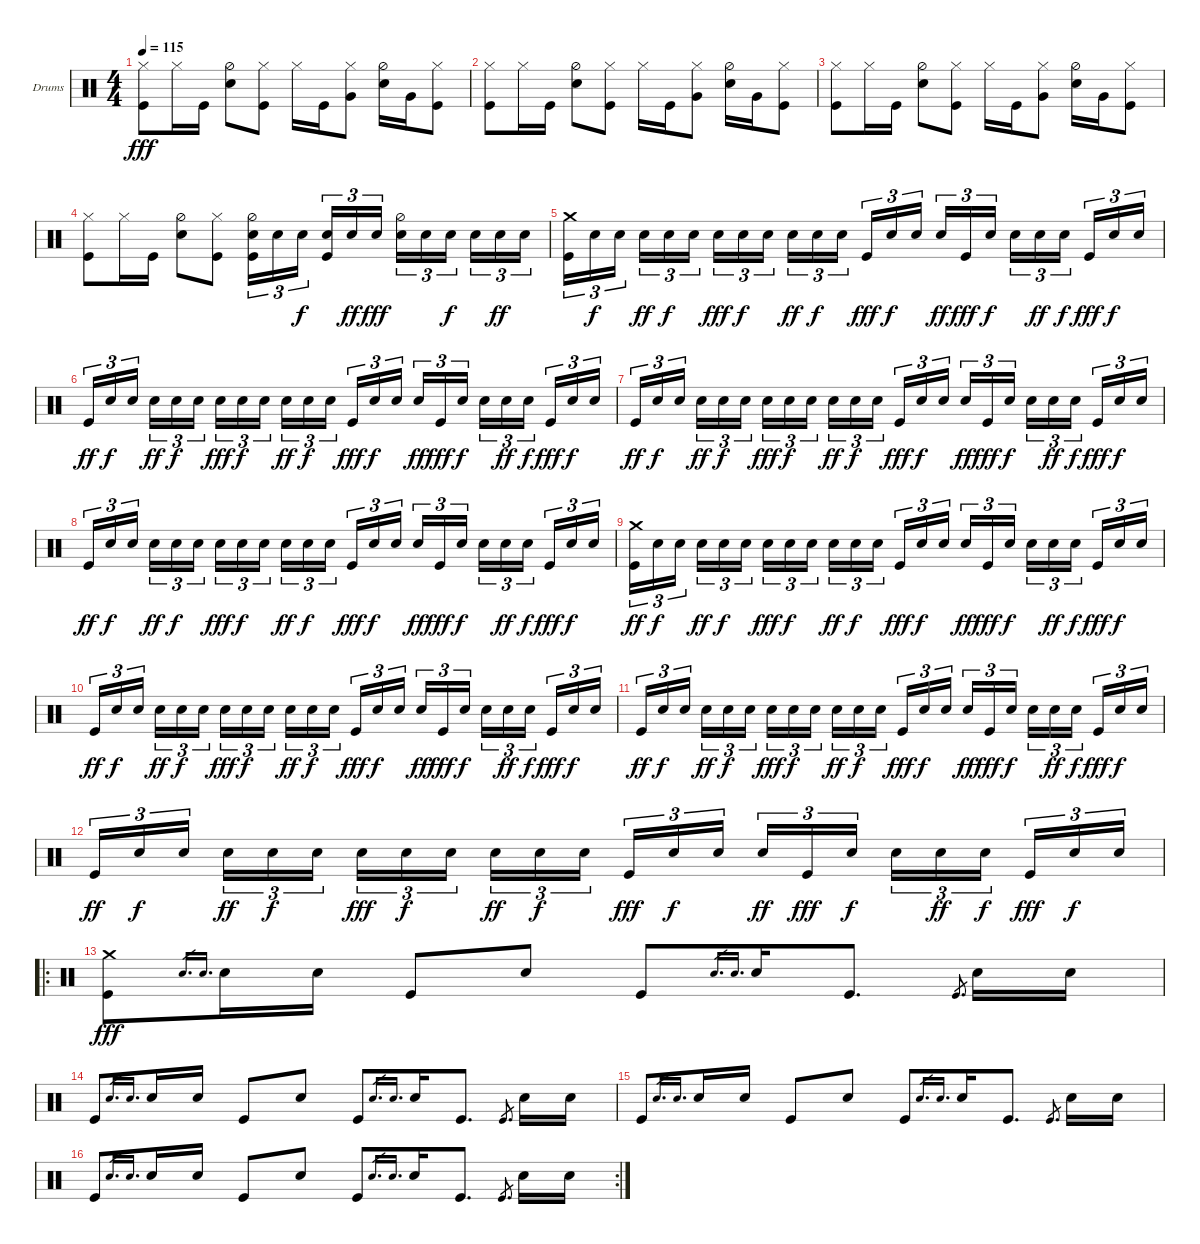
\defaultSystemsLayout 4
\bracketExtendMode groupsimilarinstruments
\firstSystemTrackNameOrientation horizontal
\otherSystemsTrackNameOrientation horizontal
\track ("Drumkit" "Drums") {instrument percussion}
\staff {score}
\articulation defaults
\ts (4 4)
\tempo 115
\clef neutral
\ks c
("Kick (hit)" "Hi-Hat (closed)").8{dy fff} "Hi-Hat (closed)".16 "Kick (hit)".16 ("Snare (hit) 2" "Hi-Hat (half)").8 ("Kick (hit)" "Hi-Hat (closed)").8 "Hi-Hat (closed)".16 "Kick (hit)".16 ("Hi-Hat (closed)" "Very Low Tom (hit)").8 ("Snare (hit) 2" "Hi-Hat (half)").16 "Very Low Tom (hit)".16 ("Kick (hit)" "Hi-Hat (closed)").8 |
("Kick (hit)" "Hi-Hat (closed)").8 "Hi-Hat (closed)".16 "Kick (hit)".16 ("Snare (hit) 2" "Hi-Hat (half)").8 ("Kick (hit)" "Hi-Hat (closed)").8 "Hi-Hat (closed)".16 "Kick (hit)".16 ("Hi-Hat (closed)" "Very Low Tom (hit)").8 ("Snare (hit) 2" "Hi-Hat (half)").16 "Very Low Tom (hit)".16 ("Kick (hit)" "Hi-Hat (closed)").8 |
("Kick (hit)" "Hi-Hat (closed)").8 "Hi-Hat (closed)".16 "Kick (hit)".16 ("Snare (hit) 2" "Hi-Hat (half)").8 ("Kick (hit)" "Hi-Hat (closed)").8 "Hi-Hat (closed)".16 "Kick (hit)".16 ("Hi-Hat (closed)" "Very Low Tom (hit)").8 ("Snare (hit) 2" "Hi-Hat (half)").16 "Very Low Tom (hit)".16 ("Kick (hit)" "Hi-Hat (closed)").8 |
("Kick (hit)" "Hi-Hat (closed)").8 "Hi-Hat (closed)".16 "Kick (hit)".16 ("Snare (hit) 2" "Hi-Hat (half)").8 ("Kick (hit)" "Hi-Hat (closed)").8 ("Snare (hit) 2" "Kick (hit)" "Hi-Hat (half)").16{tu (3 2)} "Snare (hit) 2".16{tu (3 2)} "Snare (hit) 2".16{tu (3 2) dy f} ("Snare (hit) 2" "Kick (hit)").16{tu (3 2)} "Snare (hit) 2".16{tu (3 2) dy ff} "Snare (hit) 2".16{tu (3 2) dy fff} ("Snare (hit) 2" "Hi-Hat (half)").16{tu (3 2)} "Snare (hit) 2".16{tu (3 2)} "Snare (hit) 2".16{tu (3 2) dy f} "Snare (hit) 2".16{tu (3 2)} "Snare (hit) 2".16{tu (3 2) dy ff} "Snare (hit) 2".16{tu (3 2)} |
("Kick (hit)" "Crash medium (hit)").16{tu (3 2)} "Snare (hit) 2".16{tu (3 2) dy f} "Snare (hit) 2".16{tu (3 2)} "Snare (hit) 2".16{tu (3 2) dy ff} "Snare (hit) 2".16{tu (3 2) dy f} "Snare (hit) 2".16{tu (3 2)} "Snare (hit) 2".16{tu (3 2) dy fff} "Snare (hit) 2".16{tu (3 2) dy f} "Snare (hit) 2".16{tu (3 2)} "Snare (hit) 2".16{tu (3 2) dy ff} "Snare (hit) 2".16{tu (3 2) dy f} "Snare (hit) 2".16{tu (3 2)} "Kick (hit)".16{tu (3 2) dy fff} "Snare (hit) 2".16{tu (3 2) dy f} "Snare (hit) 2".16{tu (3 2)} "Snare (hit) 2".16{tu (3 2) dy ff} "Kick (hit)".16{tu (3 2) dy fff} "Snare (hit) 2".16{tu (3 2) dy f} "Snare (hit) 2".16{tu (3 2)} "Snare (hit) 2".16{tu (3 2) dy ff} "Snare (hit) 2".16{tu (3 2) dy f} "Kick (hit)".16{tu (3 2) dy fff} "Snare (hit) 2".16{tu (3 2) dy f} "Snare (hit) 2".16{tu (3 2)} |
"Kick (hit)".16{tu (3 2) dy ff} "Snare (hit) 2".16{tu (3 2) dy f} "Snare (hit) 2".16{tu (3 2)} "Snare (hit) 2".16{tu (3 2) dy ff} "Snare (hit) 2".16{tu (3 2) dy f} "Snare (hit) 2".16{tu (3 2)} "Snare (hit) 2".16{tu (3 2) dy fff} "Snare (hit) 2".16{tu (3 2) dy f} "Snare (hit) 2".16{tu (3 2)} "Snare (hit) 2".16{tu (3 2) dy ff} "Snare (hit) 2".16{tu (3 2) dy f} "Snare (hit) 2".16{tu (3 2)} "Kick (hit)".16{tu (3 2) dy fff} "Snare (hit) 2".16{tu (3 2) dy f} "Snare (hit) 2".16{tu (3 2)} "Snare (hit) 2".16{tu (3 2) dy ff} "Kick (hit)".16{tu (3 2) dy fff} "Snare (hit) 2".16{tu (3 2) dy f} "Snare (hit) 2".16{tu (3 2)} "Snare (hit) 2".16{tu (3 2) dy ff} "Snare (hit) 2".16{tu (3 2) dy f} "Kick (hit)".16{tu (3 2) dy fff} "Snare (hit) 2".16{tu (3 2) dy f} "Snare (hit) 2".16{tu (3 2)} |
"Kick (hit)".16{tu (3 2) dy ff} "Snare (hit) 2".16{tu (3 2) dy f} "Snare (hit) 2".16{tu (3 2)} "Snare (hit) 2".16{tu (3 2) dy ff} "Snare (hit) 2".16{tu (3 2) dy f} "Snare (hit) 2".16{tu (3 2)} "Snare (hit) 2".16{tu (3 2) dy fff} "Snare (hit) 2".16{tu (3 2) dy f} "Snare (hit) 2".16{tu (3 2)} "Snare (hit) 2".16{tu (3 2) dy ff} "Snare (hit) 2".16{tu (3 2) dy f} "Snare (hit) 2".16{tu (3 2)} "Kick (hit)".16{tu (3 2) dy fff} "Snare (hit) 2".16{tu (3 2) dy f} "Snare (hit) 2".16{tu (3 2)} "Snare (hit) 2".16{tu (3 2) dy ff} "Kick (hit)".16{tu (3 2) dy fff} "Snare (hit) 2".16{tu (3 2) dy f} "Snare (hit) 2".16{tu (3 2)} "Snare (hit) 2".16{tu (3 2) dy ff} "Snare (hit) 2".16{tu (3 2) dy f} "Kick (hit)".16{tu (3 2) dy fff} "Snare (hit) 2".16{tu (3 2) dy f} "Snare (hit) 2".16{tu (3 2)} |
"Kick (hit)".16{tu (3 2) dy ff} "Snare (hit) 2".16{tu (3 2) dy f} "Snare (hit) 2".16{tu (3 2)} "Snare (hit) 2".16{tu (3 2) dy ff} "Snare (hit) 2".16{tu (3 2) dy f} "Snare (hit) 2".16{tu (3 2)} "Snare (hit) 2".16{tu (3 2) dy fff} "Snare (hit) 2".16{tu (3 2) dy f} "Snare (hit) 2".16{tu (3 2)} "Snare (hit) 2".16{tu (3 2) dy ff} "Snare (hit) 2".16{tu (3 2) dy f} "Snare (hit) 2".16{tu (3 2)} "Kick (hit)".16{tu (3 2) dy fff} "Snare (hit) 2".16{tu (3 2) dy f} "Snare (hit) 2".16{tu (3 2)} "Snare (hit) 2".16{tu (3 2) dy ff} "Kick (hit)".16{tu (3 2) dy fff} "Snare (hit) 2".16{tu (3 2) dy f} "Snare (hit) 2".16{tu (3 2)} "Snare (hit) 2".16{tu (3 2) dy ff} "Snare (hit) 2".16{tu (3 2) dy f} "Kick (hit)".16{tu (3 2) dy fff} "Snare (hit) 2".16{tu (3 2) dy f} "Snare (hit) 2".16{tu (3 2)} |
("Kick (hit)" "Crash medium (hit)").16{tu (3 2) dy ff} "Snare (hit) 2".16{tu (3 2) dy f} "Snare (hit) 2".16{tu (3 2)} "Snare (hit) 2".16{tu (3 2) dy ff} "Snare (hit) 2".16{tu (3 2) dy f} "Snare (hit) 2".16{tu (3 2)} "Snare (hit) 2".16{tu (3 2) dy fff} "Snare (hit) 2".16{tu (3 2) dy f} "Snare (hit) 2".16{tu (3 2)} "Snare (hit) 2".16{tu (3 2) dy ff} "Snare (hit) 2".16{tu (3 2) dy f} "Snare (hit) 2".16{tu (3 2)} "Kick (hit)".16{tu (3 2) dy fff} "Snare (hit) 2".16{tu (3 2) dy f} "Snare (hit) 2".16{tu (3 2)} "Snare (hit) 2".16{tu (3 2) dy ff} "Kick (hit)".16{tu (3 2) dy fff} "Snare (hit) 2".16{tu (3 2) dy f} "Snare (hit) 2".16{tu (3 2)} "Snare (hit) 2".16{tu (3 2) dy ff} "Snare (hit) 2".16{tu (3 2) dy f} "Kick (hit)".16{tu (3 2) dy fff} "Snare (hit) 2".16{tu (3 2) dy f} "Snare (hit) 2".16{tu (3 2)} |
"Kick (hit)".16{tu (3 2) dy ff} "Snare (hit) 2".16{tu (3 2) dy f} "Snare (hit) 2".16{tu (3 2)} "Snare (hit) 2".16{tu (3 2) dy ff} "Snare (hit) 2".16{tu (3 2) dy f} "Snare (hit) 2".16{tu (3 2)} "Snare (hit) 2".16{tu (3 2) dy fff} "Snare (hit) 2".16{tu (3 2) dy f} "Snare (hit) 2".16{tu (3 2)} "Snare (hit) 2".16{tu (3 2) dy ff} "Snare (hit) 2".16{tu (3 2) dy f} "Snare (hit) 2".16{tu (3 2)} "Kick (hit)".16{tu (3 2) dy fff} "Snare (hit) 2".16{tu (3 2) dy f} "Snare (hit) 2".16{tu (3 2)} "Snare (hit) 2".16{tu (3 2) dy ff} "Kick (hit)".16{tu (3 2) dy fff} "Snare (hit) 2".16{tu (3 2) dy f} "Snare (hit) 2".16{tu (3 2)} "Snare (hit) 2".16{tu (3 2) dy ff} "Snare (hit) 2".16{tu (3 2) dy f} "Kick (hit)".16{tu (3 2) dy fff} "Snare (hit) 2".16{tu (3 2) dy f} "Snare (hit) 2".16{tu (3 2)} |
"Kick (hit)".16{tu (3 2) dy ff} "Snare (hit) 2".16{tu (3 2) dy f} "Snare (hit) 2".16{tu (3 2)} "Snare (hit) 2".16{tu (3 2) dy ff} "Snare (hit) 2".16{tu (3 2) dy f} "Snare (hit) 2".16{tu (3 2)} "Snare (hit) 2".16{tu (3 2) dy fff} "Snare (hit) 2".16{tu (3 2) dy f} "Snare (hit) 2".16{tu (3 2)} "Snare (hit) 2".16{tu (3 2) dy ff} "Snare (hit) 2".16{tu (3 2) dy f} "Snare (hit) 2".16{tu (3 2)} "Kick (hit)".16{tu (3 2) dy fff} "Snare (hit) 2".16{tu (3 2) dy f} "Snare (hit) 2".16{tu (3 2)} "Snare (hit) 2".16{tu (3 2) dy ff} "Kick (hit)".16{tu (3 2) dy fff} "Snare (hit) 2".16{tu (3 2) dy f} "Snare (hit) 2".16{tu (3 2)} "Snare (hit) 2".16{tu (3 2) dy ff} "Snare (hit) 2".16{tu (3 2) dy f} "Kick (hit)".16{tu (3 2) dy fff} "Snare (hit) 2".16{tu (3 2) dy f} "Snare (hit) 2".16{tu (3 2)} |
"Kick (hit)".16{tu (3 2) dy ff} "Snare (hit) 2".16{tu (3 2) dy f} "Snare (hit) 2".16{tu (3 2)} "Snare (hit) 2".16{tu (3 2) dy ff} "Snare (hit) 2".16{tu (3 2) dy f} "Snare (hit) 2".16{tu (3 2)} "Snare (hit) 2".16{tu (3 2) dy fff} "Snare (hit) 2".16{tu (3 2) dy f} "Snare (hit) 2".16{tu (3 2)} "Snare (hit) 2".16{tu (3 2) dy ff} "Snare (hit) 2".16{tu (3 2) dy f} "Snare (hit) 2".16{tu (3 2)} "Kick (hit)".16{tu (3 2) dy fff} "Snare (hit) 2".16{tu (3 2) dy f} "Snare (hit) 2".16{tu (3 2)} "Snare (hit) 2".16{tu (3 2) dy ff} "Kick (hit)".16{tu (3 2) dy fff} "Snare (hit) 2".16{tu (3 2) dy f} "Snare (hit) 2".16{tu (3 2)} "Snare (hit) 2".16{tu (3 2) dy ff} "Snare (hit) 2".16{tu (3 2) dy f} "Kick (hit)".16{tu (3 2) dy fff} "Snare (hit) 2".16{tu (3 2) dy f} "Snare (hit) 2".16{tu (3 2)} |
\ro
("Kick (hit)" "Crash medium (hit)").8{dy fff} "Snare (hit) 2".16{d gr} "Snare (hit) 2".16{d gr} "Snare (hit) 2".16 "Snare (hit) 2".16 "Kick (hit)".8 "Snare (hit) 2".8 "Kick (hit)".8 "Snare (hit) 2".16{d gr} "Snare (hit) 2".16{d gr} "Snare (hit) 2".16 "Kick (hit)".8{d} "Kick (hit)".8{d gr} "Snare (hit) 2".16 "Snare (hit) 2".16 |
"Kick (hit)".8 "Snare (hit) 2".16{d gr} "Snare (hit) 2".16{d gr} "Snare (hit) 2".16 "Snare (hit) 2".16 "Kick (hit)".8 "Snare (hit) 2".8 "Kick (hit)".8 "Snare (hit) 2".16{d gr} "Snare (hit) 2".16{d gr} "Snare (hit) 2".16 "Kick (hit)".8{d} "Kick (hit)".8{d gr} "Snare (hit) 2".16 "Snare (hit) 2".16 |
"Kick (hit)".8 "Snare (hit) 2".16{d gr} "Snare (hit) 2".16{d gr} "Snare (hit) 2".16 "Snare (hit) 2".16 "Kick (hit)".8 "Snare (hit) 2".8 "Kick (hit)".8 "Snare (hit) 2".16{d gr} "Snare (hit) 2".16{d gr} "Snare (hit) 2".16 "Kick (hit)".8{d} "Kick (hit)".8{d gr} "Snare (hit) 2".16 "Snare (hit) 2".16 |
\rc 2 "Kick (hit)".8 "Snare (hit) 2".16{d gr} "Snare (hit) 2".16{d gr} "Snare (hit) 2".16 "Snare (hit) 2".16 "Kick (hit)".8 "Snare (hit) 2".8 "Kick (hit)".8 "Snare (hit) 2".16{d gr} "Snare (hit) 2".16{d gr} "Snare (hit) 2".16 "Kick (hit)".8{d} "Kick (hit)".8{d gr} "Snare (hit) 2".16 "Snare (hit) 2".16
